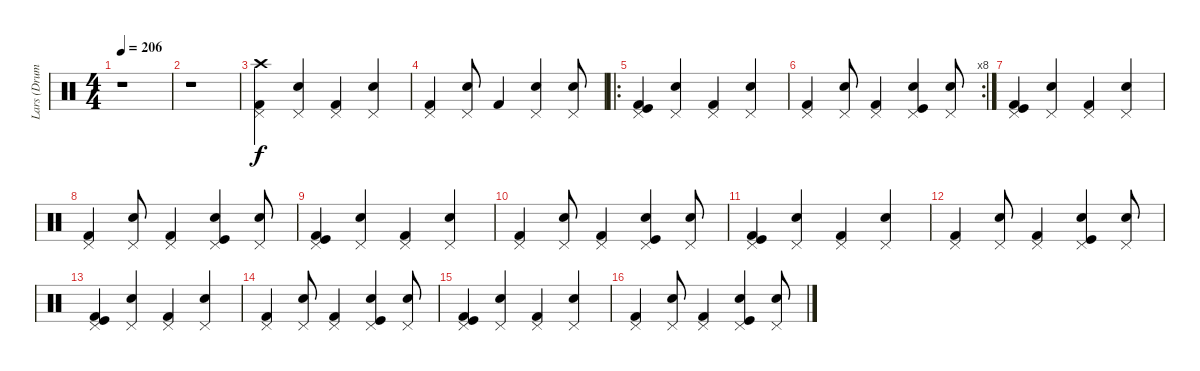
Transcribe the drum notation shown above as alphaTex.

\track ("Lars (Drums)" "Lars (Drum") {instrument percussion}
\staff {score}
\articulation defaults
\ts (4 4)
\tempo 206
\clef neutral
\ks c
r.1{dy f} |
r.1 |
("Kick (hit) 2" "Pedal Hi-Hat (hit)" "Crash high (hit)").4 ("Snare (hit) 2" "Pedal Hi-Hat (hit)").4 ("Kick (hit) 2" "Pedal Hi-Hat (hit)").4 ("Snare (hit) 2" "Pedal Hi-Hat (hit)").4 |
("Kick (hit) 2" "Pedal Hi-Hat (hit)").4 ("Snare (hit) 2" "Pedal Hi-Hat (hit)").8 "Kick (hit) 2".4 ("Snare (hit) 2" "Pedal Hi-Hat (hit)").4 ("Snare (hit) 2" "Pedal Hi-Hat (hit)").8 |
\ro
("Kick (hit) 2" "Pedal Hi-Hat (hit)" "Kick (hit)").4 ("Snare (hit) 2" "Pedal Hi-Hat (hit)").4 ("Kick (hit) 2" "Pedal Hi-Hat (hit)").4 ("Snare (hit) 2" "Pedal Hi-Hat (hit)").4 |
\rc 8
("Kick (hit) 2" "Pedal Hi-Hat (hit)").4 ("Snare (hit) 2" "Pedal Hi-Hat (hit)").8 ("Kick (hit) 2" "Pedal Hi-Hat (hit)").4 ("Snare (hit) 2" "Pedal Hi-Hat (hit)" "Kick (hit)").4 ("Snare (hit) 2" "Pedal Hi-Hat (hit)").8 |
("Kick (hit) 2" "Pedal Hi-Hat (hit)" "Kick (hit)").4 ("Snare (hit) 2" "Pedal Hi-Hat (hit)").4 ("Kick (hit) 2" "Pedal Hi-Hat (hit)").4 ("Snare (hit) 2" "Pedal Hi-Hat (hit)").4 |
("Kick (hit) 2" "Pedal Hi-Hat (hit)").4 ("Snare (hit) 2" "Pedal Hi-Hat (hit)").8 ("Kick (hit) 2" "Pedal Hi-Hat (hit)").4 ("Snare (hit) 2" "Pedal Hi-Hat (hit)" "Kick (hit)").4 ("Snare (hit) 2" "Pedal Hi-Hat (hit)").8 |
("Kick (hit) 2" "Pedal Hi-Hat (hit)" "Kick (hit)").4 ("Snare (hit) 2" "Pedal Hi-Hat (hit)").4 ("Kick (hit) 2" "Pedal Hi-Hat (hit)").4 ("Snare (hit) 2" "Pedal Hi-Hat (hit)").4 |
("Kick (hit) 2" "Pedal Hi-Hat (hit)").4 ("Snare (hit) 2" "Pedal Hi-Hat (hit)").8 ("Kick (hit) 2" "Pedal Hi-Hat (hit)").4 ("Snare (hit) 2" "Pedal Hi-Hat (hit)" "Kick (hit)").4 ("Snare (hit) 2" "Pedal Hi-Hat (hit)").8 |
("Kick (hit) 2" "Pedal Hi-Hat (hit)" "Kick (hit)").4 ("Snare (hit) 2" "Pedal Hi-Hat (hit)").4 ("Kick (hit) 2" "Pedal Hi-Hat (hit)").4 ("Snare (hit) 2" "Pedal Hi-Hat (hit)").4 |
("Kick (hit) 2" "Pedal Hi-Hat (hit)").4 ("Snare (hit) 2" "Pedal Hi-Hat (hit)").8 ("Kick (hit) 2" "Pedal Hi-Hat (hit)").4 ("Snare (hit) 2" "Pedal Hi-Hat (hit)" "Kick (hit)").4 ("Snare (hit) 2" "Pedal Hi-Hat (hit)").8 |
("Kick (hit) 2" "Pedal Hi-Hat (hit)" "Kick (hit)").4 ("Snare (hit) 2" "Pedal Hi-Hat (hit)").4 ("Kick (hit) 2" "Pedal Hi-Hat (hit)").4 ("Snare (hit) 2" "Pedal Hi-Hat (hit)").4 |
("Kick (hit) 2" "Pedal Hi-Hat (hit)").4 ("Snare (hit) 2" "Pedal Hi-Hat (hit)").8 ("Kick (hit) 2" "Pedal Hi-Hat (hit)").4 ("Snare (hit) 2" "Pedal Hi-Hat (hit)" "Kick (hit)").4 ("Snare (hit) 2" "Pedal Hi-Hat (hit)").8 |
("Kick (hit) 2" "Pedal Hi-Hat (hit)" "Kick (hit)").4 ("Snare (hit) 2" "Pedal Hi-Hat (hit)").4 ("Kick (hit) 2" "Pedal Hi-Hat (hit)").4 ("Snare (hit) 2" "Pedal Hi-Hat (hit)").4 |
("Kick (hit) 2" "Pedal Hi-Hat (hit)").4 ("Snare (hit) 2" "Pedal Hi-Hat (hit)").8 ("Kick (hit) 2" "Pedal Hi-Hat (hit)").4 ("Snare (hit) 2" "Pedal Hi-Hat (hit)" "Kick (hit)").4 ("Snare (hit) 2" "Pedal Hi-Hat (hit)").8
